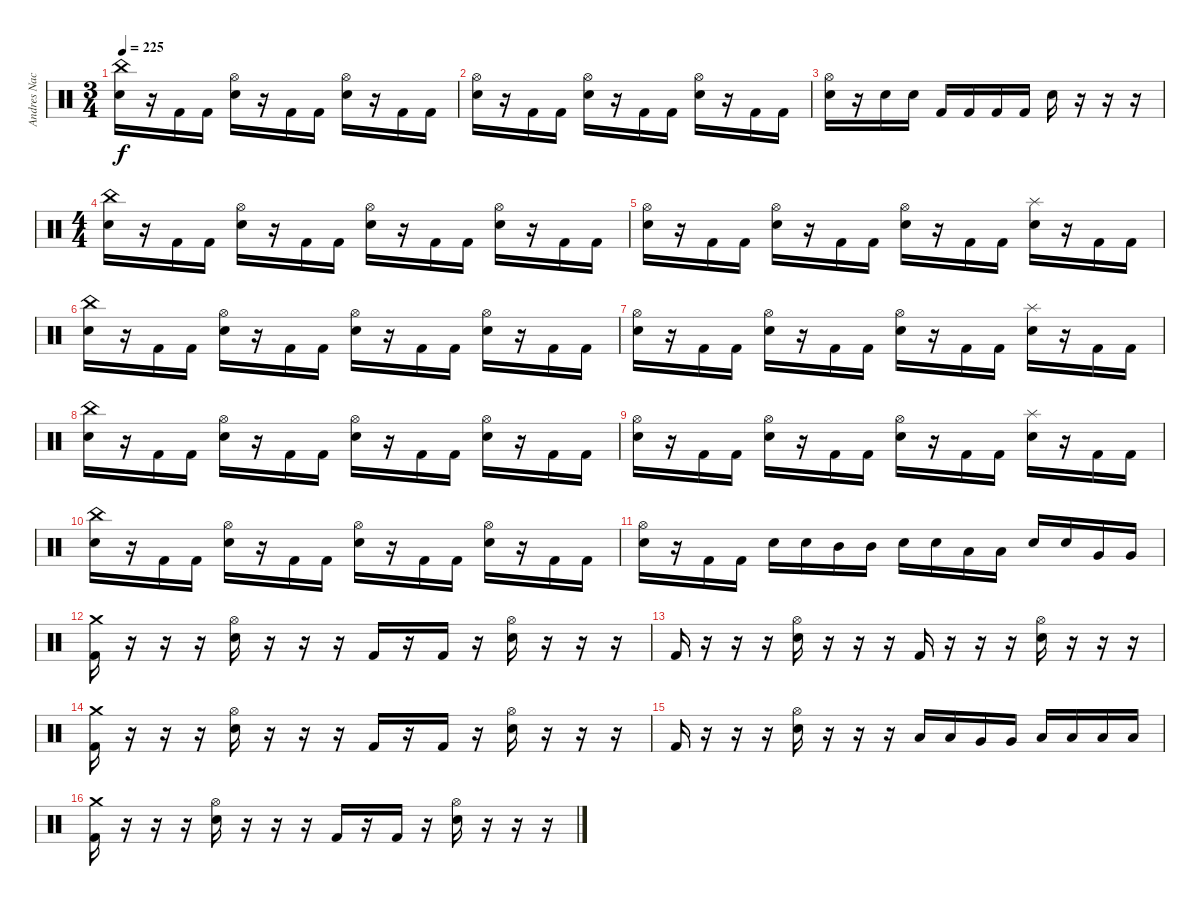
\track ("Andres Nacrur" "Andres Nac") {instrument percussion}
\staff {score}
\articulation defaults
\ts (3 4)
\tempo 225
\clef neutral
\ks c
("China (hit)" "Snare (hit) 2").16{dy f} r.16 "Kick (hit) 2".16 "Kick (hit) 2".16 ("Hi-Hat (open)" "Snare (hit) 2").16 r.16 "Kick (hit) 2".16 "Kick (hit) 2".16 ("Hi-Hat (open)" "Snare (hit) 2").16 r.16 "Kick (hit) 2".16 "Kick (hit) 2".16 |
("Hi-Hat (open)" "Snare (hit) 2").16 r.16 "Kick (hit) 2".16 "Kick (hit) 2".16 ("Hi-Hat (open)" "Snare (hit) 2").16 r.16 "Kick (hit) 2".16 "Kick (hit) 2".16 ("Hi-Hat (open)" "Snare (hit) 2").16 r.16 "Kick (hit) 2".16 "Kick (hit) 2".16 |
("Hi-Hat (open)" "Snare (hit) 2").16 r.16 "Snare (hit) 2".16 "Snare (hit) 2".16 "Kick (hit) 2".16 "Kick (hit) 2".16 "Kick (hit) 2".16 "Kick (hit) 2".16 "Snare (hit) 2".16 r.16 r.16 r.16 |
\ts (4 4)
("China (hit)" "Snare (hit) 2").16 r.16 "Kick (hit) 2".16 "Kick (hit) 2".16 ("Hi-Hat (open)" "Snare (hit) 2").16 r.16 "Kick (hit) 2".16 "Kick (hit) 2".16 ("Hi-Hat (open)" "Snare (hit) 2").16 r.16 "Kick (hit) 2".16 "Kick (hit) 2".16 ("Hi-Hat (open)" "Snare (hit) 2").16 r.16 "Kick (hit) 2".16 "Kick (hit) 2".16 |
("Hi-Hat (open)" "Snare (hit) 2").16 r.16 "Kick (hit) 2".16 "Kick (hit) 2".16 ("Hi-Hat (open)" "Snare (hit) 2").16 r.16 "Kick (hit) 2".16 "Kick (hit) 2".16 ("Hi-Hat (open)" "Snare (hit) 2").16 r.16 "Kick (hit) 2".16 "Kick (hit) 2".16 ("Splash (hit)" "Snare (hit) 2").16 r.16 "Kick (hit) 2".16 "Kick (hit) 2".16 |
("China (hit)" "Snare (hit) 2").16 r.16 "Kick (hit) 2".16 "Kick (hit) 2".16 ("Hi-Hat (open)" "Snare (hit) 2").16 r.16 "Kick (hit) 2".16 "Kick (hit) 2".16 ("Hi-Hat (open)" "Snare (hit) 2").16 r.16 "Kick (hit) 2".16 "Kick (hit) 2".16 ("Hi-Hat (open)" "Snare (hit) 2").16 r.16 "Kick (hit) 2".16 "Kick (hit) 2".16 |
("Hi-Hat (open)" "Snare (hit) 2").16 r.16 "Kick (hit) 2".16 "Kick (hit) 2".16 ("Hi-Hat (open)" "Snare (hit) 2").16 r.16 "Kick (hit) 2".16 "Kick (hit) 2".16 ("Hi-Hat (open)" "Snare (hit) 2").16 r.16 "Kick (hit) 2".16 "Kick (hit) 2".16 ("Splash (hit)" "Snare (hit) 2").16 r.16 "Kick (hit) 2".16 "Kick (hit) 2".16 |
("China (hit)" "Snare (hit) 2").16 r.16 "Kick (hit) 2".16 "Kick (hit) 2".16 ("Hi-Hat (open)" "Snare (hit) 2").16 r.16 "Kick (hit) 2".16 "Kick (hit) 2".16 ("Hi-Hat (open)" "Snare (hit) 2").16 r.16 "Kick (hit) 2".16 "Kick (hit) 2".16 ("Hi-Hat (open)" "Snare (hit) 2").16 r.16 "Kick (hit) 2".16 "Kick (hit) 2".16 |
("Hi-Hat (open)" "Snare (hit) 2").16 r.16 "Kick (hit) 2".16 "Kick (hit) 2".16 ("Hi-Hat (open)" "Snare (hit) 2").16 r.16 "Kick (hit) 2".16 "Kick (hit) 2".16 ("Hi-Hat (open)" "Snare (hit) 2").16 r.16 "Kick (hit) 2".16 "Kick (hit) 2".16 ("Splash (hit)" "Snare (hit) 2").16 r.16 "Kick (hit) 2".16 "Kick (hit) 2".16 |
("China (hit)" "Snare (hit) 2").16 r.16 "Kick (hit) 2".16 "Kick (hit) 2".16 ("Hi-Hat (open)" "Snare (hit) 2").16 r.16 "Kick (hit) 2".16 "Kick (hit) 2".16 ("Hi-Hat (open)" "Snare (hit) 2").16 r.16 "Kick (hit) 2".16 "Kick (hit) 2".16 ("Hi-Hat (open)" "Snare (hit) 2").16 r.16 "Kick (hit) 2".16 "Kick (hit) 2".16 |
("Hi-Hat (open)" "Snare (hit) 2").16 r.16 "Kick (hit) 2".16 "Kick (hit) 2".16 "Snare (hit) 2".16 "Snare (hit) 2".16 "Mid Tom (hit)".16 "Mid Tom (hit)".16 "Snare (hit) 2".16 "Snare (hit) 2".16 "Low Tom (hit)".16 "Low Tom (hit)".16 "Snare (hit) 2".16 "Snare (hit) 2".16 "Very Low Tom (hit)".16 "Very Low Tom (hit)".16 |
("Crash medium (hit)" "Kick (hit) 2").16 r.16 r.16 r.16 ("Hi-Hat (open)" "Snare (hit) 2").16 r.16 r.16 r.16 "Kick (hit) 2".16 r.16 "Kick (hit) 2".16 r.16 ("Hi-Hat (open)" "Snare (hit) 2").16 r.16 r.16 r.16 |
"Kick (hit) 2".16 r.16 r.16 r.16 ("Hi-Hat (open)" "Snare (hit) 2").16 r.16 r.16 r.16 "Kick (hit) 2".16 r.16 r.16 r.16 ("Hi-Hat (open)" "Snare (hit) 2").16 r.16 r.16 r.16 |
("Crash medium (hit)" "Kick (hit) 2").16 r.16 r.16 r.16 ("Hi-Hat (open)" "Snare (hit) 2").16 r.16 r.16 r.16 "Kick (hit) 2".16 r.16 "Kick (hit) 2".16 r.16 ("Hi-Hat (open)" "Snare (hit) 2").16 r.16 r.16 r.16 |
"Kick (hit) 2".16 r.16 r.16 r.16 ("Hi-Hat (open)" "Snare (hit) 2").16 r.16 r.16 r.16 "Low Tom (hit)".16 "Low Tom (hit)".16 "Very Low Tom (hit)".16 "Very Low Tom (hit)".16 "Low Floor Tom (hit)".16 "Low Floor Tom (hit)".16 "Low Floor Tom (hit)".16 "Low Floor Tom (hit)".16 |
("Crash medium (hit)" "Kick (hit) 2").16 r.16 r.16 r.16 ("Hi-Hat (open)" "Snare (hit) 2").16 r.16 r.16 r.16 "Kick (hit) 2".16 r.16 "Kick (hit) 2".16 r.16 ("Hi-Hat (open)" "Snare (hit) 2").16 r.16 r.16 r.16
